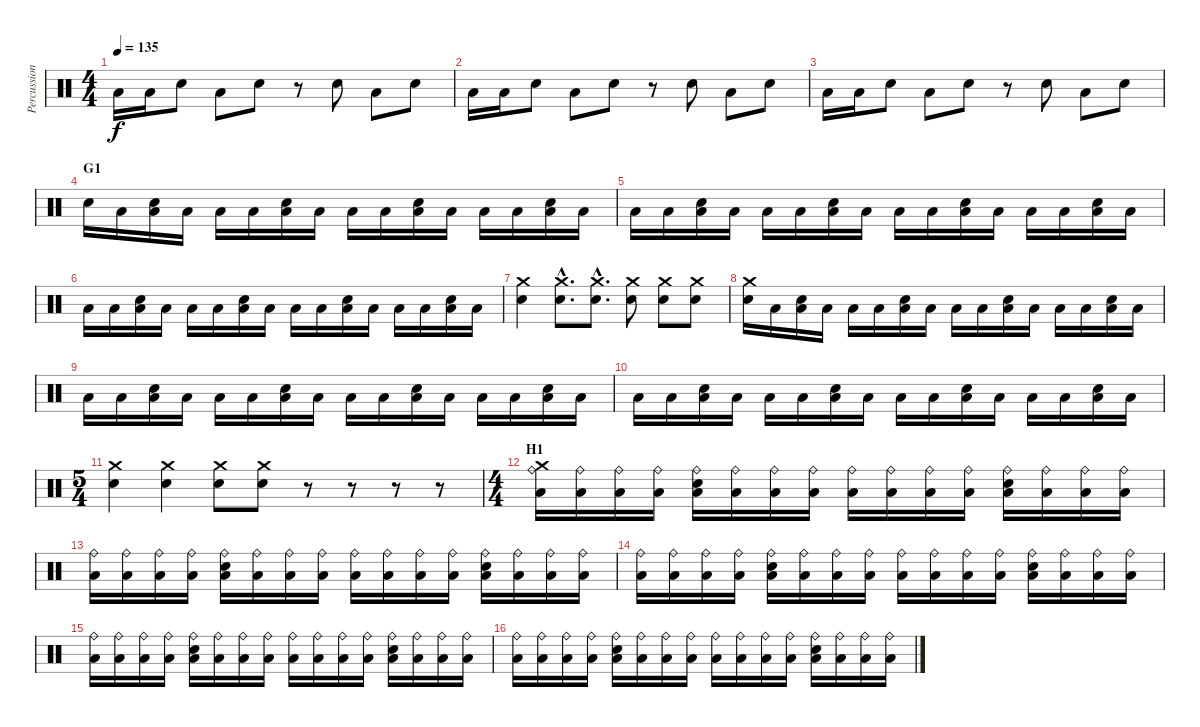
\track ("Percussion" "Percussion") {instrument percussion}
\staff {score}
\articulation defaults
\ts (4 4)
\tempo 135
\clef neutral
\ks c "Low Floor Tom (hit)".16{dy f} "Low Floor Tom (hit)".16 "Electric Snare (hit)".8 "Low Floor Tom (hit)".8 "Electric Snare (hit)".8
r.8 "Electric Snare (hit)".8 "Low Floor Tom (hit)".8 "Electric Snare (hit)".8 |
"Low Floor Tom (hit)".16 "Low Floor Tom (hit)".16 "Electric Snare (hit)".8 "Low Floor Tom (hit)".8 "Electric Snare (hit)".8 r.8 "Electric Snare (hit)".8 "Low Floor Tom (hit)".8 "Electric Snare (hit)".8 |
"Low Floor Tom (hit)".16 "Low Floor Tom (hit)".16 "Electric Snare (hit)".8 "Low Floor Tom (hit)".8 "Electric Snare (hit)".8 r.8 "Electric Snare (hit)".8 "Low Floor Tom (hit)".8 "Electric Snare (hit)".8 |
\section ("" "G1")
"Electric Snare (hit)".16 "Low Floor Tom (hit)".16 ("Low Floor Tom (hit)" "Electric Snare (hit)").16 "Low Floor Tom (hit)".16 "Low Floor Tom (hit)".16 "Low Floor Tom (hit)".16 ("Low Floor Tom (hit)" "Electric Snare (hit)").16 "Low Floor Tom (hit)".16 "Low Floor Tom (hit)".16 "Low Floor Tom (hit)".16 ("Low Floor Tom (hit)" "Electric Snare (hit)").16 "Low Floor Tom (hit)".16 "Low Floor Tom (hit)".16 "Low Floor Tom (hit)".16 ("Low Floor Tom (hit)" "Electric Snare (hit)").16 "Low Floor Tom (hit)".16 |
"Low Floor Tom (hit)".16 "Low Floor Tom (hit)".16 ("Low Floor Tom (hit)" "Electric Snare (hit)").16 "Low Floor Tom (hit)".16 "Low Floor Tom (hit)".16 "Low Floor Tom (hit)".16 ("Low Floor Tom (hit)" "Electric Snare (hit)").16 "Low Floor Tom (hit)".16 "Low Floor Tom (hit)".16 "Low Floor Tom (hit)".16 ("Low Floor Tom (hit)" "Electric Snare (hit)").16 "Low Floor Tom (hit)".16 "Low Floor Tom (hit)".16 "Low Floor Tom (hit)".16 ("Low Floor Tom (hit)" "Electric Snare (hit)").16 "Low Floor Tom (hit)".16 |
"Low Floor Tom (hit)".16 "Low Floor Tom (hit)".16 ("Low Floor Tom (hit)" "Electric Snare (hit)").16 "Low Floor Tom (hit)".16 "Low Floor Tom (hit)".16 "Low Floor Tom (hit)".16 ("Low Floor Tom (hit)" "Electric Snare (hit)").16 "Low Floor Tom (hit)".16 "Low Floor Tom (hit)".16 "Low Floor Tom (hit)".16 ("Low Floor Tom (hit)" "Electric Snare (hit)").16 "Low Floor Tom (hit)".16 "Low Floor Tom (hit)".16 "Low Floor Tom (hit)".16 ("Low Floor Tom (hit)" "Electric Snare (hit)").16 "Low Floor Tom (hit)".16 |
("Electric Snare (hit)" "Crash medium (hit)").4 ("Electric Snare (hit)"{hac} "Crash medium (hit)"{hac}).8{d} ("Electric Snare (hit)"{hac} "Crash medium (hit)"{hac}).8{d} ("Electric Snare (hit)" "Crash medium (hit)").8 ("Electric Snare (hit)" "Crash medium (hit)").8 ("Electric Snare (hit)" "Crash medium (hit)").8 |
("Electric Snare (hit)" "Crash medium (hit)").16 "Low Floor Tom (hit)".16 ("Low Floor Tom (hit)" "Electric Snare (hit)").16 "Low Floor Tom (hit)".16 "Low Floor Tom (hit)".16 "Low Floor Tom (hit)".16 ("Low Floor Tom (hit)" "Electric Snare (hit)").16 "Low Floor Tom (hit)".16 "Low Floor Tom (hit)".16 "Low Floor Tom (hit)".16 ("Low Floor Tom (hit)" "Electric Snare (hit)").16 "Low Floor Tom (hit)".16 "Low Floor Tom (hit)".16 "Low Floor Tom (hit)".16 ("Low Floor Tom (hit)" "Electric Snare (hit)").16 "Low Floor Tom (hit)".16 |
"Low Floor Tom (hit)".16 "Low Floor Tom (hit)".16 ("Low Floor Tom (hit)" "Electric Snare (hit)").16 "Low Floor Tom (hit)".16 "Low Floor Tom (hit)".16 "Low Floor Tom (hit)".16 ("Low Floor Tom (hit)" "Electric Snare (hit)").16 "Low Floor Tom (hit)".16 "Low Floor Tom (hit)".16 "Low Floor Tom (hit)".16 ("Low Floor Tom (hit)" "Electric Snare (hit)").16 "Low Floor Tom (hit)".16 "Low Floor Tom (hit)".16 "Low Floor Tom (hit)".16 ("Low Floor Tom (hit)" "Electric Snare (hit)").16 "Low Floor Tom (hit)".16 |
"Low Floor Tom (hit)".16 "Low Floor Tom (hit)".16 ("Low Floor Tom (hit)" "Electric Snare (hit)").16 "Low Floor Tom (hit)".16 "Low Floor Tom (hit)".16 "Low Floor Tom (hit)".16 ("Low Floor Tom (hit)" "Electric Snare (hit)").16 "Low Floor Tom (hit)".16 "Low Floor Tom (hit)".16 "Low Floor Tom (hit)".16 ("Low Floor Tom (hit)" "Electric Snare (hit)").16 "Low Floor Tom (hit)".16 "Low Floor Tom (hit)".16 "Low Floor Tom (hit)".16 ("Low Floor Tom (hit)" "Electric Snare (hit)").16 "Low Floor Tom (hit)".16 |
\ts (5 4)
("Electric Snare (hit)" "Crash medium (hit)").4 ("Electric Snare (hit)" "Crash medium (hit)").4 ("Electric Snare (hit)" "Crash medium (hit)").8 ("Electric Snare (hit)" "Crash medium (hit)").8 r.8 r.8 r.8 r.8 |
\ts (4 4)
\section ("" "H1")
("Low Floor Tom (hit)" "Crash medium (hit)" "Ride (bell)").16 ("Low Floor Tom (hit)" "Ride (bell)").16 ("Low Floor Tom (hit)" "Ride (bell)").16 ("Low Floor Tom (hit)" "Ride (bell)").16 ("Low Floor Tom (hit)" "Electric Snare (hit)" "Ride (bell)").16 ("Low Floor Tom (hit)" "Ride (bell)").16 ("Low Floor Tom (hit)" "Ride (bell)").16 ("Low Floor Tom (hit)" "Ride (bell)").16 ("Low Floor Tom (hit)" "Ride (bell)").16 ("Low Floor Tom (hit)" "Ride (bell)").16 ("Low Floor Tom (hit)" "Ride (bell)").16 ("Low Floor Tom (hit)" "Ride (bell)").16 ("Low Floor Tom (hit)" "Electric Snare (hit)" "Ride (bell)").16 ("Low Floor Tom (hit)" "Ride (bell)").16 ("Low Floor Tom (hit)" "Ride (bell)").16 ("Low Floor Tom (hit)" "Ride (bell)").16 |
("Low Floor Tom (hit)" "Ride (bell)").16 ("Low Floor Tom (hit)" "Ride (bell)").16 ("Low Floor Tom (hit)" "Ride (bell)").16 ("Low Floor Tom (hit)" "Ride (bell)").16 ("Low Floor Tom (hit)" "Electric Snare (hit)" "Ride (bell)").16 ("Low Floor Tom (hit)" "Ride (bell)").16 ("Low Floor Tom (hit)" "Ride (bell)").16 ("Low Floor Tom (hit)" "Ride (bell)").16 ("Low Floor Tom (hit)" "Ride (bell)").16 ("Low Floor Tom (hit)" "Ride (bell)").16 ("Low Floor Tom (hit)" "Ride (bell)").16 ("Low Floor Tom (hit)" "Ride (bell)").16 ("Low Floor Tom (hit)" "Electric Snare (hit)" "Ride (bell)").16 ("Low Floor Tom (hit)" "Ride (bell)").16 ("Low Floor Tom (hit)" "Ride (bell)").16 ("Low Floor Tom (hit)" "Ride (bell)").16 |
("Low Floor Tom (hit)" "Ride (bell)").16 ("Low Floor Tom (hit)" "Ride (bell)").16 ("Low Floor Tom (hit)" "Ride (bell)").16 ("Low Floor Tom (hit)" "Ride (bell)").16 ("Low Floor Tom (hit)" "Electric Snare (hit)" "Ride (bell)").16 ("Low Floor Tom (hit)" "Ride (bell)").16 ("Low Floor Tom (hit)" "Ride (bell)").16 ("Low Floor Tom (hit)" "Ride (bell)").16 ("Low Floor Tom (hit)" "Ride (bell)").16 ("Low Floor Tom (hit)" "Ride (bell)").16 ("Low Floor Tom (hit)" "Ride (bell)").16 ("Low Floor Tom (hit)" "Ride (bell)").16 ("Low Floor Tom (hit)" "Electric Snare (hit)" "Ride (bell)").16 ("Low Floor Tom (hit)" "Ride (bell)").16 ("Low Floor Tom (hit)" "Ride (bell)").16 ("Low Floor Tom (hit)" "Ride (bell)").16 |
("Low Floor Tom (hit)" "Ride (bell)").16 ("Low Floor Tom (hit)" "Ride (bell)").16 ("Low Floor Tom (hit)" "Ride (bell)").16 ("Low Floor Tom (hit)" "Ride (bell)").16 ("Low Floor Tom (hit)" "Electric Snare (hit)" "Ride (bell)").16 ("Low Floor Tom (hit)" "Ride (bell)").16 ("Low Floor Tom (hit)" "Ride (bell)").16 ("Low Floor Tom (hit)" "Ride (bell)").16 ("Low Floor Tom (hit)" "Ride (bell)").16 ("Low Floor Tom (hit)" "Ride (bell)").16 ("Low Floor Tom (hit)" "Ride (bell)").16 ("Low Floor Tom (hit)" "Ride (bell)").16 ("Low Floor Tom (hit)" "Electric Snare (hit)" "Ride (bell)").16 ("Low Floor Tom (hit)" "Ride (bell)").16 ("Low Floor Tom (hit)" "Ride (bell)").16 ("Low Floor Tom (hit)" "Ride (bell)").16 |
("Low Floor Tom (hit)" "Ride (bell)").16 ("Low Floor Tom (hit)" "Ride (bell)").16 ("Low Floor Tom (hit)" "Ride (bell)").16 ("Low Floor Tom (hit)" "Ride (bell)").16 ("Low Floor Tom (hit)" "Electric Snare (hit)" "Ride (bell)").16 ("Low Floor Tom (hit)" "Ride (bell)").16 ("Low Floor Tom (hit)" "Ride (bell)").16 ("Low Floor Tom (hit)" "Ride (bell)").16 ("Low Floor Tom (hit)" "Ride (bell)").16 ("Low Floor Tom (hit)" "Ride (bell)").16 ("Low Floor Tom (hit)" "Ride (bell)").16 ("Low Floor Tom (hit)" "Ride (bell)").16 ("Low Floor Tom (hit)" "Electric Snare (hit)" "Ride (bell)").16 ("Low Floor Tom (hit)" "Ride (bell)").16 ("Low Floor Tom (hit)" "Ride (bell)").16 ("Low Floor Tom (hit)" "Ride (bell)").16
